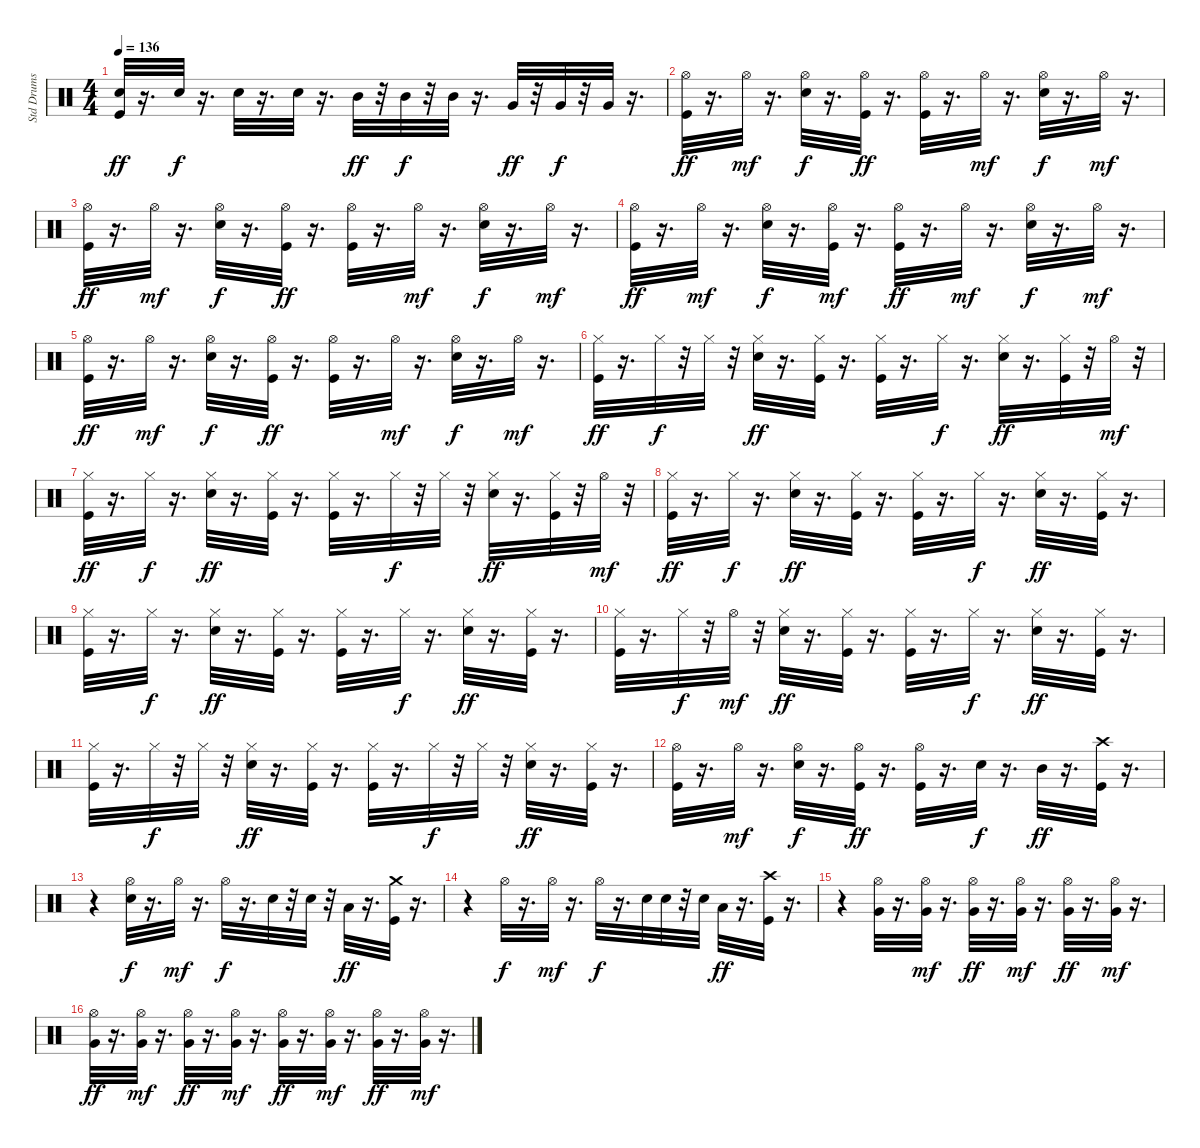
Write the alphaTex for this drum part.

\track ("Std Drums" "Std Drums") {instrument percussion}
\staff {score}
\articulation defaults
\ts (4 4)
\tempo 136
\clef neutral
\ks c
("Kick (hit)" "Snare (hit) 2").32{dy ff} r.16{d} "Snare (hit) 2".32{dy f} r.16{d} "Snare (hit) 2".32 r.16{d} "Snare (hit) 2".32 r.16{d} "Mid Tom (hit)".32{dy ff} r.32 "Mid Tom (hit)".32{dy f} r.32 "Mid Tom (hit)".32 r.16{d} "Very Low Tom (hit)".32{dy ff} r.32 "Very Low Tom (hit)".32{dy f} r.32 "Very Low Tom (hit)".32 r.16{d} |
("Hi-Hat (open)" "Kick (hit)").32{dy ff} r.16{d} "Hi-Hat (open)".32{dy mf} r.16{d} ("Hi-Hat (open)" "Snare (hit) 2").32{dy f} r.16{d} ("Hi-Hat (open)" "Kick (hit)").32{dy ff} r.16{d} ("Hi-Hat (open)" "Kick (hit)").32 r.16{d} "Hi-Hat (open)".32{dy mf} r.16{d} ("Hi-Hat (open)" "Snare (hit) 2").32{dy f} r.16{d} "Hi-Hat (open)".32{dy mf} r.16{d} |
("Hi-Hat (open)" "Kick (hit)").32{dy ff} r.16{d} "Hi-Hat (open)".32{dy mf} r.16{d} ("Hi-Hat (open)" "Snare (hit) 2").32{dy f} r.16{d} ("Hi-Hat (open)" "Kick (hit)").32{dy ff} r.16{d} ("Hi-Hat (open)" "Kick (hit)").32 r.16{d} "Hi-Hat (open)".32{dy mf} r.16{d} ("Hi-Hat (open)" "Snare (hit) 2").32{dy f} r.16{d} "Hi-Hat (open)".32{dy mf} r.16{d} |
("Kick (hit)" "Hi-Hat (open)").32{dy ff} r.16{d} "Hi-Hat (open)".32{dy mf} r.16{d} ("Hi-Hat (open)" "Snare (hit) 2").32{dy f} r.16{d} ("Kick (hit)" "Hi-Hat (open)").32{dy mf} r.16{d} ("Kick (hit)" "Hi-Hat (open)").32{dy ff} r.16{d} "Hi-Hat (open)".32{dy mf} r.16{d} ("Hi-Hat (open)" "Snare (hit) 2").32{dy f} r.16{d} "Hi-Hat (open)".32{dy mf} r.16{d} |
("Kick (hit)" "Hi-Hat (open)").32{dy ff} r.16{d} "Hi-Hat (open)".32{dy mf} r.16{d} ("Snare (hit) 2" "Hi-Hat (open)").32{dy f} r.16{d} ("Hi-Hat (open)" "Kick (hit)").32{dy ff} r.16{d} ("Kick (hit)" "Hi-Hat (open)").32 r.16{d} "Hi-Hat (open)".32{dy mf} r.16{d} ("Snare (hit) 2" "Hi-Hat (open)").32{dy f} r.16{d} "Hi-Hat (open)".32{dy mf} r.16{d} |
("Kick (hit)" "Hi-Hat (closed)").32{dy ff} r.16{d} "Hi-Hat (closed)".32{dy f} r.32 "Hi-Hat (closed)".32 r.32 ("Hi-Hat (closed)" "Snare (hit) 2").32{dy ff} r.16{d} ("Hi-Hat (closed)" "Kick (hit)").32 r.16{d} ("Hi-Hat (closed)" "Kick (hit)").32 r.16{d} "Hi-Hat (closed)".32{dy f} r.16{d} ("Hi-Hat (closed)" "Snare (hit) 2").32{dy ff} r.16{d} ("Kick (hit)" "Hi-Hat (closed)").32 r.32 "Hi-Hat (open)".32{dy mf} r.32 |
("Hi-Hat (closed)" "Kick (hit)").32{dy ff} r.16{d} "Hi-Hat (closed)".32{dy f} r.16{d} ("Snare (hit) 2" "Hi-Hat (closed)").32{dy ff} r.16{d} ("Kick (hit)" "Hi-Hat (closed)").32 r.16{d} ("Hi-Hat (closed)" "Kick (hit)").32 r.16{d} "Hi-Hat (closed)".32{dy f} r.32 "Hi-Hat (closed)".32 r.32 ("Snare (hit) 2" "Hi-Hat (closed)").32{dy ff} r.16{d} ("Kick (hit)" "Hi-Hat (closed)").32 r.32 "Hi-Hat (open)".32{dy mf} r.32 |
("Hi-Hat (closed)" "Kick (hit)").32{dy ff} r.16{d} "Hi-Hat (closed)".32{dy f} r.16{d} ("Snare (hit) 2" "Hi-Hat (closed)").32{dy ff} r.16{d} ("Hi-Hat (closed)" "Kick (hit)").32 r.16{d} ("Hi-Hat (closed)" "Kick (hit)").32 r.16{d} "Hi-Hat (closed)".32{dy f} r.16{d} ("Snare (hit) 2" "Hi-Hat (closed)").32{dy ff} r.16{d} ("Kick (hit)" "Hi-Hat (closed)").32 r.16{d} |
("Kick (hit)" "Hi-Hat (closed)").32 r.16{d} "Hi-Hat (closed)".32{dy f} r.16{d} ("Snare (hit) 2" "Hi-Hat (closed)").32{dy ff} r.16{d} ("Hi-Hat (closed)" "Kick (hit)").32 r.16{d} ("Kick (hit)" "Hi-Hat (closed)").32 r.16{d} "Hi-Hat (closed)".32{dy f} r.16{d} ("Hi-Hat (closed)" "Snare (hit) 2").32{dy ff} r.16{d} ("Kick (hit)" "Hi-Hat (closed)").32 r.16{d} |
("Kick (hit)" "Hi-Hat (closed)").32 r.16{d} "Hi-Hat (closed)".32{dy f} r.32 "Hi-Hat (open)".32{dy mf} r.32 ("Snare (hit) 2" "Hi-Hat (closed)").32{dy ff} r.16{d} ("Kick (hit)" "Hi-Hat (closed)").32 r.16{d} ("Kick (hit)" "Hi-Hat (closed)").32 r.16{d} "Hi-Hat (closed)".32{dy f} r.16{d} ("Snare (hit) 2" "Hi-Hat (closed)").32{dy ff} r.16{d} ("Kick (hit)" "Hi-Hat (closed)").32 r.16{d} |
("Kick (hit)" "Hi-Hat (closed)").32 r.16{d} "Hi-Hat (closed)".32{dy f} r.32 "Hi-Hat (closed)".32 r.32 ("Hi-Hat (closed)" "Snare (hit) 2").32{dy ff} r.16{d} ("Kick (hit)" "Hi-Hat (closed)").32 r.16{d} ("Hi-Hat (closed)" "Kick (hit)").32 r.16{d} "Hi-Hat (closed)".32{dy f} r.32 "Hi-Hat (closed)".32 r.32 ("Hi-Hat (closed)" "Snare (hit) 2").32{dy ff} r.16{d} ("Hi-Hat (closed)" "Kick (hit)").32 r.16{d} |
("Kick (hit)" "Hi-Hat (open)").32 r.16{d} "Hi-Hat (open)".32{dy mf} r.16{d} ("Hi-Hat (open)" "Snare (hit) 2").32{dy f} r.16{d} ("Hi-Hat (open)" "Kick (hit)").32{dy ff} r.16{d} ("Hi-Hat (open)" "Kick (hit)").32 r.16{d} "Snare (hit) 2".32{dy f} r.16{d} "Mid Tom (hit)".32{dy ff} r.16{d} ("Crash high (hit)" "Kick (hit)").32 r.16{d} |
r.4 ("Snare (hit) 2" "Hi-Hat (open)").32{dy f} r.16{d} "Hi-Hat (open)".32{dy mf} r.16{d} "Hi-Hat (open)".32{dy f} r.16{d} "Snare (hit) 2".32 r.32 "Snare (hit) 2".32 r.32 "Low Tom (hit)".32{dy ff} r.16{d} ("Crash medium (hit)" "Kick (hit)").32 r.16{d} |
r.4 "Hi-Hat (open)".32{dy f} r.16{d} "Hi-Hat (open)".32{dy mf} r.16{d} "Hi-Hat (open)".32{dy f} r.16{d} "Snare (hit) 2".32 "Snare (hit) 2".32 r.32 "Snare (hit) 2".32 "Low Tom (hit)".32{dy ff} r.16{d} ("Crash high (hit)" "Kick (hit)").32 r.16{d} |
r.4 ("Very Low Tom (hit)" "Hi-Hat (open)").32 r.16{d} ("Very Low Tom (hit)" "Hi-Hat (open)").32{dy mf} r.16{d} ("Hi-Hat (open)" "Very Low Tom (hit)").32{dy ff} r.16{d} ("Hi-Hat (open)" "Very Low Tom (hit)").32{dy mf} r.16{d} ("Very Low Tom (hit)" "Hi-Hat (open)").32{dy ff} r.16{d} ("Very Low Tom (hit)" "Hi-Hat (open)").32{dy mf} r.16{d} |
("Very Low Tom (hit)" "Hi-Hat (open)").32{dy ff} r.16{d} ("Very Low Tom (hit)" "Hi-Hat (open)").32{dy mf} r.16{d} ("Hi-Hat (open)" "Very Low Tom (hit)").32{dy ff} r.16{d} ("Hi-Hat (open)" "Very Low Tom (hit)").32{dy mf} r.16{d} ("Hi-Hat (open)" "Very Low Tom (hit)").32{dy ff} r.16{d} ("Very Low Tom (hit)" "Hi-Hat (open)").32{dy mf} r.16{d} ("Hi-Hat (open)" "Very Low Tom (hit)").32{dy ff} r.16{d} ("Hi-Hat (open)" "Very Low Tom (hit)").32{dy mf} r.16{d}
